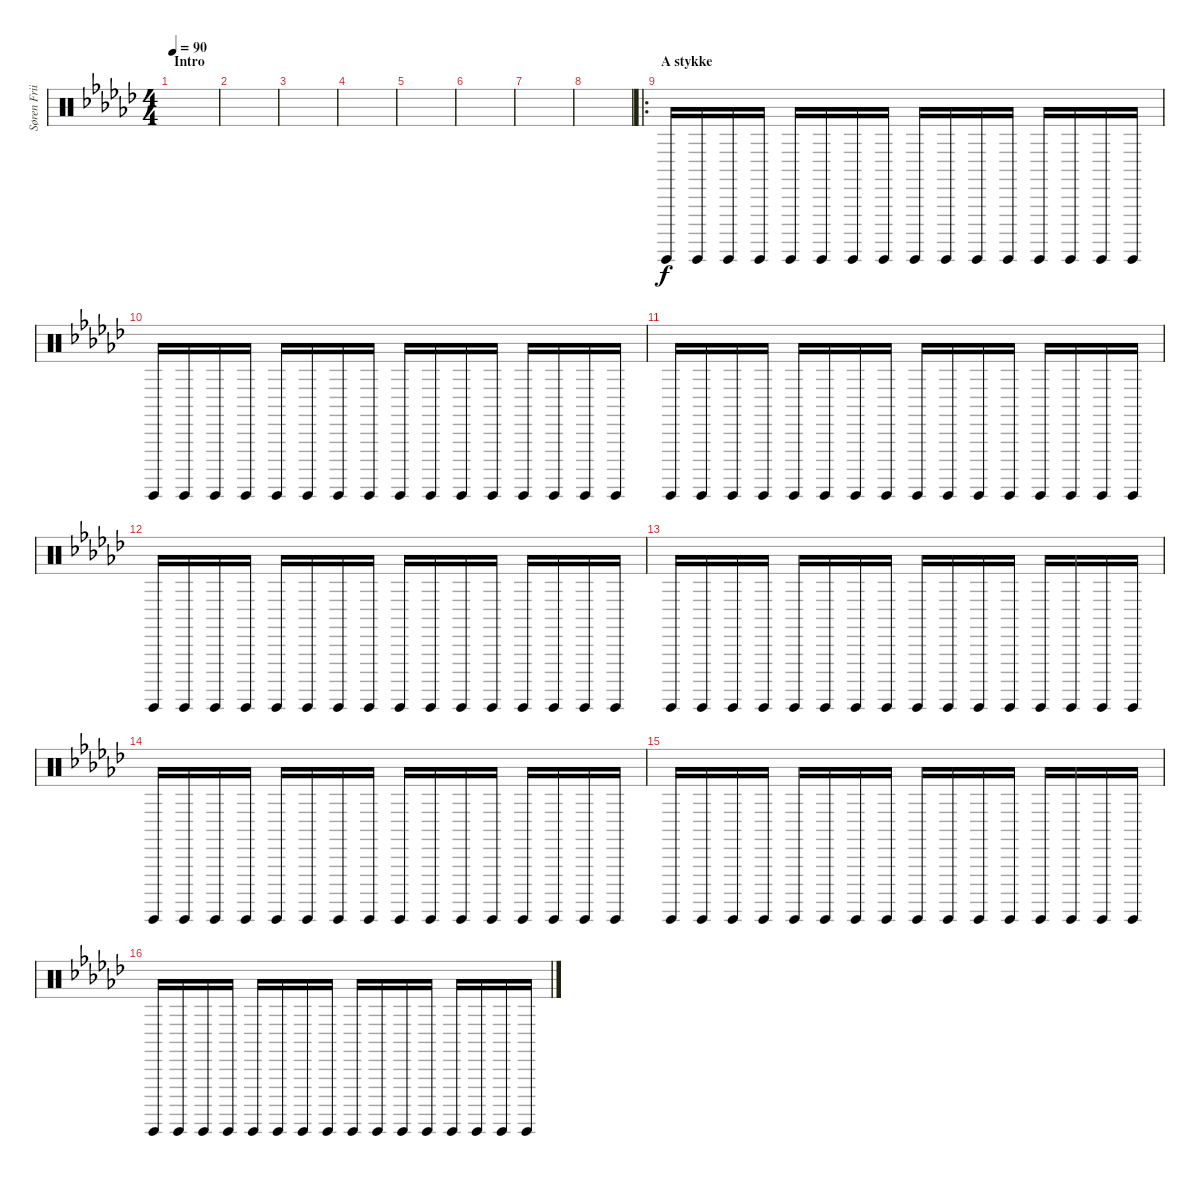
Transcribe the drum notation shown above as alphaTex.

\track ("Søren Friis (Percussion)" "Søren Frii") {instrument percussion}
\staff {score}
\articulation defaults
\ts (4 4)
\section ("" "Intro")
\tempo 90
\clef neutral
\ks gb
|
|
|
|
|
|
|
|
\ro
\section ("" "A stykke")
"Guiro (hit)".16 "Guiro (hit)".16 "Guiro (hit)".16 "Guiro (hit)".16 "Guiro (hit)".16 "Guiro (hit)".16 "Guiro (hit)".16 "Guiro (hit)".16 "Guiro (hit)".16 "Guiro (hit)".16 "Guiro (hit)".16 "Guiro (hit)".16 "Guiro (hit)".16 "Guiro (hit)".16 "Guiro (hit)".16 "Guiro (hit)".16 |
"Guiro (hit)".16 "Guiro (hit)".16 "Guiro (hit)".16 "Guiro (hit)".16 "Guiro (hit)".16 "Guiro (hit)".16 "Guiro (hit)".16 "Guiro (hit)".16 "Guiro (hit)".16 "Guiro (hit)".16 "Guiro (hit)".16 "Guiro (hit)".16 "Guiro (hit)".16 "Guiro (hit)".16 "Guiro (hit)".16 "Guiro (hit)".16 |
"Guiro (hit)".16 "Guiro (hit)".16 "Guiro (hit)".16 "Guiro (hit)".16 "Guiro (hit)".16 "Guiro (hit)".16 "Guiro (hit)".16 "Guiro (hit)".16 "Guiro (hit)".16 "Guiro (hit)".16 "Guiro (hit)".16 "Guiro (hit)".16 "Guiro (hit)".16 "Guiro (hit)".16 "Guiro (hit)".16 "Guiro (hit)".16 |
"Guiro (hit)".16 "Guiro (hit)".16 "Guiro (hit)".16 "Guiro (hit)".16 "Guiro (hit)".16 "Guiro (hit)".16 "Guiro (hit)".16 "Guiro (hit)".16 "Guiro (hit)".16 "Guiro (hit)".16 "Guiro (hit)".16 "Guiro (hit)".16 "Guiro (hit)".16 "Guiro (hit)".16 "Guiro (hit)".16 "Guiro (hit)".16 |
"Guiro (hit)".16 "Guiro (hit)".16 "Guiro (hit)".16 "Guiro (hit)".16 "Guiro (hit)".16 "Guiro (hit)".16 "Guiro (hit)".16 "Guiro (hit)".16 "Guiro (hit)".16 "Guiro (hit)".16 "Guiro (hit)".16 "Guiro (hit)".16 "Guiro (hit)".16 "Guiro (hit)".16 "Guiro (hit)".16 "Guiro (hit)".16 |
"Guiro (hit)".16 "Guiro (hit)".16 "Guiro (hit)".16 "Guiro (hit)".16 "Guiro (hit)".16 "Guiro (hit)".16 "Guiro (hit)".16 "Guiro (hit)".16 "Guiro (hit)".16 "Guiro (hit)".16 "Guiro (hit)".16 "Guiro (hit)".16 "Guiro (hit)".16 "Guiro (hit)".16 "Guiro (hit)".16 "Guiro (hit)".16 |
"Guiro (hit)".16 "Guiro (hit)".16 "Guiro (hit)".16 "Guiro (hit)".16 "Guiro (hit)".16 "Guiro (hit)".16 "Guiro (hit)".16 "Guiro (hit)".16 "Guiro (hit)".16 "Guiro (hit)".16 "Guiro (hit)".16 "Guiro (hit)".16 "Guiro (hit)".16 "Guiro (hit)".16 "Guiro (hit)".16 "Guiro (hit)".16 |
"Guiro (hit)".16 "Guiro (hit)".16 "Guiro (hit)".16 "Guiro (hit)".16 "Guiro (hit)".16 "Guiro (hit)".16 "Guiro (hit)".16 "Guiro (hit)".16 "Guiro (hit)".16 "Guiro (hit)".16 "Guiro (hit)".16 "Guiro (hit)".16 "Guiro (hit)".16 "Guiro (hit)".16 "Guiro (hit)".16 "Guiro (hit)".16
